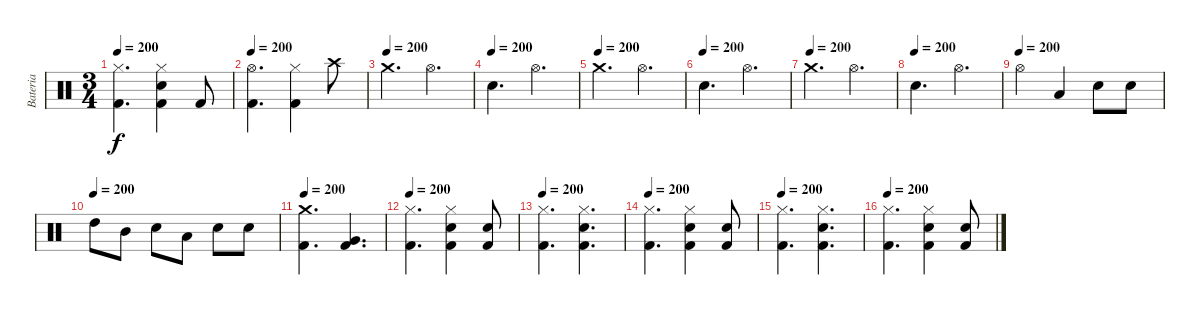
\track ("Bateria" "Bateria") {instrument percussion}
\staff {score}
\articulation defaults
\ts (3 4)
\tempo 200
\clef neutral
\ks c
("Hi-Hat (closed)" "Kick (hit) 2").4{d dy f} ("Hi-Hat (closed)" "Electric Snare (hit)" "Kick (hit) 2").4 "Kick (hit) 2".8 |
\tempo 200
("Hi-Hat (open)" "Kick (hit) 2").4{d} ("Hi-Hat (closed)" "Kick (hit) 2").4 "Crash high (hit)".8 |
\tempo (200)
"Crash medium (hit)".4{d} "Hi-Hat (open)".4{d} |
\tempo (200)
"Electric Snare (hit)".4{d} "Hi-Hat (open)".4{d} |
\tempo (200)
"Crash medium (hit)".4{d} "Hi-Hat (open)".4{d} |
\tempo (200)
"Electric Snare (hit)".4{d} "Hi-Hat (open)".4{d} |
\tempo (200)
"Crash medium (hit)".4{d} "Hi-Hat (open)".4{d} |
\tempo (200)
"Electric Snare (hit)".4{d} "Hi-Hat (open)".4{d} |
\tempo (200)
"Hi-Hat (open)".4 "Low Tom (hit)".4 "Electric Snare (hit)".8 "Electric Snare (hit)".8 |
\tempo (200)
"High Tom (hit)".8 "Mid Tom (hit)".8 "Electric Snare (hit)".8 "Low Tom (hit)".8 "Electric Snare (hit)".8 "Electric Snare (hit)".8 |
\tempo 200
("Crash medium (hit)" "Kick (hit) 2").4{d} ("Very Low Tom (hit)" "Kick (hit) 2").4{d} |
\tempo 200
("Hi-Hat (closed)" "Kick (hit) 2").4{d} ("Electric Snare (hit)" "Hi-Hat (closed)" "Kick (hit) 2").4 ("Electric Snare (hit)" "Kick (hit) 2").8 |
\tempo 200
("Hi-Hat (closed)" "Kick (hit) 2").4{d} ("Electric Snare (hit)" "Hi-Hat (closed)" "Kick (hit) 2").4{d} |
\tempo 200
("Hi-Hat (closed)" "Kick (hit) 2").4{d} ("Electric Snare (hit)" "Hi-Hat (closed)" "Kick (hit) 2").4 ("Electric Snare (hit)" "Kick (hit) 2").8 |
\tempo 200
("Hi-Hat (closed)" "Kick (hit) 2").4{d} ("Electric Snare (hit)" "Hi-Hat (closed)" "Kick (hit) 2").4{d} |
\tempo 200
("Hi-Hat (closed)" "Kick (hit) 2").4{d} ("Electric Snare (hit)" "Hi-Hat (closed)" "Kick (hit) 2").4 ("Electric Snare (hit)" "Kick (hit) 2").8
